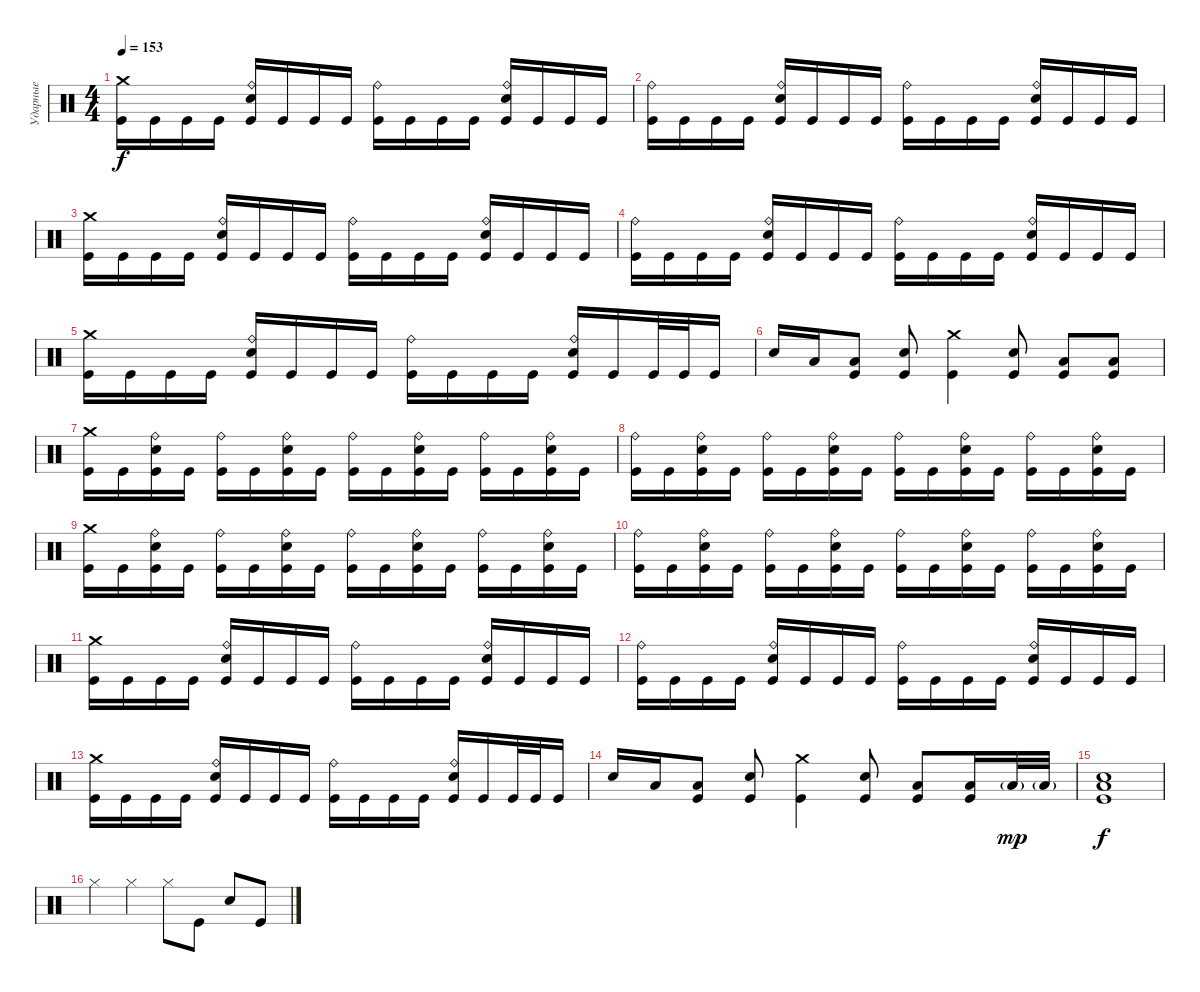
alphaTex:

\track ("Ударные" "Ударные") {instrument percussion}
\staff {score}
\articulation defaults
\ts (4 4)
\tempo 153
\clef neutral
\ks c
("Crash medium (hit)" "Kick (hit)").16{dy f} "Kick (hit)".16 "Kick (hit)".16 "Kick (hit)".16 ("Ride (bell)" "Electric Snare (hit)" "Kick (hit)").16 "Kick (hit)".16 "Kick (hit)".16 "Kick (hit)".16 ("Ride (bell)" "Kick (hit)").16 "Kick (hit)".16 "Kick (hit)".16 "Kick (hit)".16 ("Ride (bell)" "Electric Snare (hit)" "Kick (hit)").16 "Kick (hit)".16 "Kick (hit)".16 "Kick (hit)".16 |
("Ride (bell)" "Kick (hit)").16 "Kick (hit)".16 "Kick (hit)".16 "Kick (hit)".16 ("Ride (bell)" "Electric Snare (hit)" "Kick (hit)").16 "Kick (hit)".16 "Kick (hit)".16 "Kick (hit)".16 ("Ride (bell)" "Kick (hit)").16 "Kick (hit)".16 "Kick (hit)".16 "Kick (hit)".16 ("Ride (bell)" "Electric Snare (hit)" "Kick (hit)").16 "Kick (hit)".16 "Kick (hit)".16 "Kick (hit)".16 |
("Crash medium (hit)" "Kick (hit)").16 "Kick (hit)".16 "Kick (hit)".16 "Kick (hit)".16 ("Ride (bell)" "Electric Snare (hit)" "Kick (hit)").16 "Kick (hit)".16 "Kick (hit)".16 "Kick (hit)".16 ("Ride (bell)" "Kick (hit)").16 "Kick (hit)".16 "Kick (hit)".16 "Kick (hit)".16 ("Ride (bell)" "Electric Snare (hit)" "Kick (hit)").16 "Kick (hit)".16 "Kick (hit)".16 "Kick (hit)".16 |
("Ride (bell)" "Kick (hit)").16 "Kick (hit)".16 "Kick (hit)".16 "Kick (hit)".16 ("Ride (bell)" "Electric Snare (hit)" "Kick (hit)").16 "Kick (hit)".16 "Kick (hit)".16 "Kick (hit)".16 ("Ride (bell)" "Kick (hit)").16 "Kick (hit)".16 "Kick (hit)".16 "Kick (hit)".16 ("Ride (bell)" "Electric Snare (hit)" "Kick (hit)").16 "Kick (hit)".16 "Kick (hit)".16 "Kick (hit)".16 |
("Crash medium (hit)" "Kick (hit)").16 "Kick (hit)".16 "Kick (hit)".16 "Kick (hit)".16 ("Ride (bell)" "Electric Snare (hit)" "Kick (hit)").16 "Kick (hit)".16 "Kick (hit)".16 "Kick (hit)".16 ("Ride (bell)" "Kick (hit)").16 "Kick (hit)".16 "Kick (hit)".16 "Kick (hit)".16 ("Ride (bell)" "Electric Snare (hit)" "Kick (hit)").16 "Kick (hit)".16 "Kick (hit)".32 "Kick (hit)".32 "Kick (hit)".16 |
"Electric Snare (hit)".16 "Low Tom (hit)".16 ("Low Tom (hit)" "Kick (hit)").8 ("Electric Snare (hit)" "Kick (hit)").8 ("Crash medium (hit)" "Kick (hit)").4 ("Electric Snare (hit)" "Kick (hit)").8 ("Low Tom (hit)" "Kick (hit)").8 ("Low Tom (hit)" "Kick (hit)").8 |
("Crash medium (hit)" "Kick (hit)").16 "Kick (hit)".16 ("Ride (bell)" "Electric Snare (hit)" "Kick (hit)").16 "Kick (hit)".16 ("Ride (bell)" "Kick (hit)").16 "Kick (hit)".16 ("Ride (bell)" "Electric Snare (hit)" "Kick (hit)").16 "Kick (hit)".16 ("Ride (bell)" "Kick (hit)").16 "Kick (hit)".16 ("Ride (bell)" "Electric Snare (hit)" "Kick (hit)").16 "Kick (hit)".16 ("Ride (bell)" "Kick (hit)").16 "Kick (hit)".16 ("Ride (bell)" "Electric Snare (hit)" "Kick (hit)").16 "Kick (hit)".16 |
("Ride (bell)" "Kick (hit)").16 "Kick (hit)".16 ("Ride (bell)" "Electric Snare (hit)" "Kick (hit)").16 "Kick (hit)".16 ("Ride (bell)" "Kick (hit)").16 "Kick (hit)".16 ("Ride (bell)" "Electric Snare (hit)" "Kick (hit)").16 "Kick (hit)".16 ("Ride (bell)" "Kick (hit)").16 "Kick (hit)".16 ("Ride (bell)" "Electric Snare (hit)" "Kick (hit)").16 "Kick (hit)".16 ("Ride (bell)" "Kick (hit)").16 "Kick (hit)".16 ("Ride (bell)" "Electric Snare (hit)" "Kick (hit)").16 "Kick (hit)".16 |
("Crash medium (hit)" "Kick (hit)").16 "Kick (hit)".16 ("Ride (bell)" "Electric Snare (hit)" "Kick (hit)").16 "Kick (hit)".16 ("Ride (bell)" "Kick (hit)").16 "Kick (hit)".16 ("Ride (bell)" "Electric Snare (hit)" "Kick (hit)").16 "Kick (hit)".16 ("Ride (bell)" "Kick (hit)").16 "Kick (hit)".16 ("Ride (bell)" "Electric Snare (hit)" "Kick (hit)").16 "Kick (hit)".16 ("Ride (bell)" "Kick (hit)").16 "Kick (hit)".16 ("Ride (bell)" "Electric Snare (hit)" "Kick (hit)").16 "Kick (hit)".16 |
("Ride (bell)" "Kick (hit)").16 "Kick (hit)".16 ("Ride (bell)" "Electric Snare (hit)" "Kick (hit)").16 "Kick (hit)".16 ("Ride (bell)" "Kick (hit)").16 "Kick (hit)".16 ("Ride (bell)" "Electric Snare (hit)" "Kick (hit)").16 "Kick (hit)".16 ("Ride (bell)" "Kick (hit)").16 "Kick (hit)".16 ("Ride (bell)" "Electric Snare (hit)" "Kick (hit)").16 "Kick (hit)".16 ("Ride (bell)" "Kick (hit)").16 "Kick (hit)".16 ("Ride (bell)" "Electric Snare (hit)" "Kick (hit)").16 "Kick (hit)".16 |
("Crash medium (hit)" "Kick (hit)").16 "Kick (hit)".16 "Kick (hit)".16 "Kick (hit)".16 ("Ride (bell)" "Electric Snare (hit)" "Kick (hit)").16 "Kick (hit)".16 "Kick (hit)".16 "Kick (hit)".16 ("Ride (bell)" "Kick (hit)").16 "Kick (hit)".16 "Kick (hit)".16 "Kick (hit)".16 ("Ride (bell)" "Electric Snare (hit)" "Kick (hit)").16 "Kick (hit)".16 "Kick (hit)".16 "Kick (hit)".16 |
("Ride (bell)" "Kick (hit)").16 "Kick (hit)".16 "Kick (hit)".16 "Kick (hit)".16 ("Ride (bell)" "Electric Snare (hit)" "Kick (hit)").16 "Kick (hit)".16 "Kick (hit)".16 "Kick (hit)".16 ("Ride (bell)" "Kick (hit)").16 "Kick (hit)".16 "Kick (hit)".16 "Kick (hit)".16 ("Ride (bell)" "Electric Snare (hit)" "Kick (hit)").16 "Kick (hit)".16 "Kick (hit)".16 "Kick (hit)".16 |
("Crash medium (hit)" "Kick (hit)").16 "Kick (hit)".16 "Kick (hit)".16 "Kick (hit)".16 ("Ride (bell)" "Electric Snare (hit)" "Kick (hit)").16 "Kick (hit)".16 "Kick (hit)".16 "Kick (hit)".16 ("Ride (bell)" "Kick (hit)").16 "Kick (hit)".16 "Kick (hit)".16 "Kick (hit)".16 ("Ride (bell)" "Electric Snare (hit)" "Kick (hit)").16 "Kick (hit)".16 "Kick (hit)".32 "Kick (hit)".32 "Kick (hit)".16 |
"Electric Snare (hit)".16 "Low Tom (hit)".16 ("Low Tom (hit)" "Kick (hit)").8 ("Electric Snare (hit)" "Kick (hit)").8 ("Crash medium (hit)" "Kick (hit)").4 ("Electric Snare (hit)" "Kick (hit)").8 ("Low Tom (hit)" "Kick (hit)").8 ("Low Tom (hit)" "Kick (hit)").16 "Low Tom (hit)"{g}.32{dy mp} "Low Tom (hit)"{g}.32 |
("Low Tom (hit)" "Electric Snare (hit)" "Kick (hit)").1{dy f} |
"Hi-Hat (closed)".4 "Hi-Hat (closed)".4 "Hi-Hat (closed)".8 "Kick (hit)".8 "Electric Snare (hit)".8 "Kick (hit)".8
